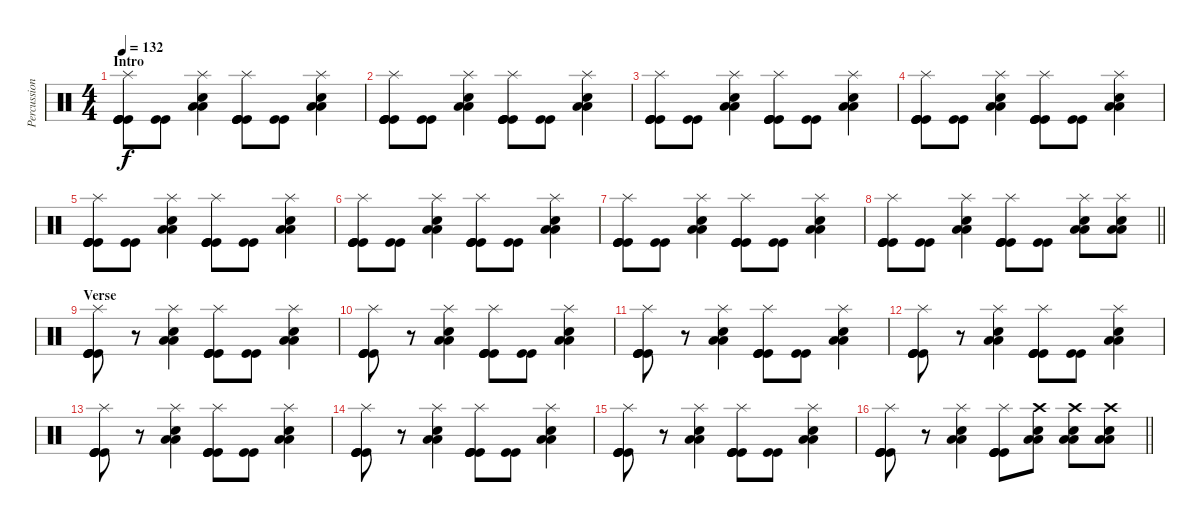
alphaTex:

\track ("Percussion" "Percussion") {instrument percussion}
\staff {score}
\articulation defaults
\ts (4 4)
\section ("" "Intro")
\tempo 132
\clef neutral
\ks c
("Splash (hit)" "Kick (hit)" "Kick (hit)" "Kick (hit)" "Kick (hit)").8{dy f} ("Kick (hit)" "Kick (hit)").8 ("Splash (hit)" "Low Tom (hit)" "Low Tom (hit)" "Electric Snare (hit)").4 ("Splash (hit)" "Kick (hit)" "Kick (hit)" "Kick (hit)" "Kick (hit)").8 ("Kick (hit)" "Kick (hit)").8 ("Splash (hit)" "Low Tom (hit)" "Low Tom (hit)" "Electric Snare (hit)").4 |
("Splash (hit)" "Kick (hit)" "Kick (hit)" "Kick (hit)" "Kick (hit)").8 ("Kick (hit)" "Kick (hit)").8 ("Splash (hit)" "Low Tom (hit)" "Low Tom (hit)" "Electric Snare (hit)").4 ("Splash (hit)" "Kick (hit)" "Kick (hit)" "Kick (hit)" "Kick (hit)").8 ("Kick (hit)" "Kick (hit)").8 ("Splash (hit)" "Low Tom (hit)" "Low Tom (hit)" "Electric Snare (hit)").4 |
("Splash (hit)" "Kick (hit)" "Kick (hit)" "Kick (hit)" "Kick (hit)").8 ("Kick (hit)" "Kick (hit)").8 ("Splash (hit)" "Low Tom (hit)" "Low Tom (hit)" "Electric Snare (hit)").4 ("Splash (hit)" "Kick (hit)" "Kick (hit)" "Kick (hit)" "Kick (hit)").8 ("Kick (hit)" "Kick (hit)").8 ("Splash (hit)" "Low Tom (hit)" "Low Tom (hit)" "Electric Snare (hit)").4 |
("Splash (hit)" "Kick (hit)" "Kick (hit)" "Kick (hit)" "Kick (hit)").8 ("Kick (hit)" "Kick (hit)").8 ("Splash (hit)" "Low Tom (hit)" "Low Tom (hit)" "Electric Snare (hit)").4 ("Splash (hit)" "Kick (hit)" "Kick (hit)" "Kick (hit)" "Kick (hit)").8 ("Kick (hit)" "Kick (hit)").8 ("Splash (hit)" "Low Tom (hit)" "Low Tom (hit)" "Electric Snare (hit)").4 |
("Splash (hit)" "Kick (hit)" "Kick (hit)" "Kick (hit)" "Kick (hit)").8 ("Kick (hit)" "Kick (hit)").8 ("Splash (hit)" "Low Tom (hit)" "Low Tom (hit)" "Electric Snare (hit)").4 ("Splash (hit)" "Kick (hit)" "Kick (hit)" "Kick (hit)" "Kick (hit)").8 ("Kick (hit)" "Kick (hit)").8 ("Splash (hit)" "Low Tom (hit)" "Low Tom (hit)" "Electric Snare (hit)").4 |
("Splash (hit)" "Kick (hit)" "Kick (hit)" "Kick (hit)" "Kick (hit)").8 ("Kick (hit)" "Kick (hit)").8 ("Splash (hit)" "Low Tom (hit)" "Low Tom (hit)" "Electric Snare (hit)").4 ("Splash (hit)" "Kick (hit)" "Kick (hit)" "Kick (hit)" "Kick (hit)").8 ("Kick (hit)" "Kick (hit)").8 ("Splash (hit)" "Low Tom (hit)" "Low Tom (hit)" "Electric Snare (hit)").4 |
("Splash (hit)" "Kick (hit)" "Kick (hit)" "Kick (hit)" "Kick (hit)").8 ("Kick (hit)" "Kick (hit)").8 ("Splash (hit)" "Low Tom (hit)" "Low Tom (hit)" "Electric Snare (hit)").4 ("Splash (hit)" "Kick (hit)" "Kick (hit)" "Kick (hit)" "Kick (hit)").8 ("Kick (hit)" "Kick (hit)").8 ("Splash (hit)" "Low Tom (hit)" "Low Tom (hit)" "Electric Snare (hit)").4 |
\barLineRight lightlight
("Splash (hit)" "Kick (hit)" "Kick (hit)" "Kick (hit)" "Kick (hit)").8 ("Kick (hit)" "Kick (hit)").8 ("Splash (hit)" "Low Tom (hit)" "Low Tom (hit)" "Electric Snare (hit)").4 ("Splash (hit)" "Kick (hit)" "Kick (hit)" "Kick (hit)" "Kick (hit)").8 ("Kick (hit)" "Kick (hit)").8 ("Splash (hit)" "Low Tom (hit)" "Low Tom (hit)" "Electric Snare (hit)").8 ("Splash (hit)" "Low Tom (hit)" "Low Tom (hit)" "Electric Snare (hit)").8 |
\section ("" "Verse")
("Splash (hit)" "Kick (hit)" "Kick (hit)" "Kick (hit)" "Kick (hit)").8 r.8 ("Splash (hit)" "Low Tom (hit)" "Low Tom (hit)" "Electric Snare (hit)").4 ("Splash (hit)" "Kick (hit)" "Kick (hit)" "Kick (hit)" "Kick (hit)").8 ("Kick (hit)" "Kick (hit)").8 ("Splash (hit)" "Low Tom (hit)" "Low Tom (hit)" "Electric Snare (hit)").4 |
("Splash (hit)" "Kick (hit)" "Kick (hit)" "Kick (hit)" "Kick (hit)").8 r.8 ("Splash (hit)" "Low Tom (hit)" "Low Tom (hit)" "Electric Snare (hit)").4 ("Splash (hit)" "Kick (hit)" "Kick (hit)" "Kick (hit)" "Kick (hit)").8 ("Kick (hit)" "Kick (hit)").8 ("Splash (hit)" "Low Tom (hit)" "Low Tom (hit)" "Electric Snare (hit)").4 |
("Splash (hit)" "Kick (hit)" "Kick (hit)" "Kick (hit)" "Kick (hit)").8 r.8 ("Splash (hit)" "Low Tom (hit)" "Low Tom (hit)" "Electric Snare (hit)").4 ("Splash (hit)" "Kick (hit)" "Kick (hit)" "Kick (hit)" "Kick (hit)").8 ("Kick (hit)" "Kick (hit)").8 ("Splash (hit)" "Low Tom (hit)" "Low Tom (hit)" "Electric Snare (hit)").4 |
("Splash (hit)" "Kick (hit)" "Kick (hit)" "Kick (hit)" "Kick (hit)").8 r.8 ("Splash (hit)" "Low Tom (hit)" "Low Tom (hit)" "Electric Snare (hit)").4 ("Splash (hit)" "Kick (hit)" "Kick (hit)" "Kick (hit)" "Kick (hit)").8 ("Kick (hit)" "Kick (hit)").8 ("Splash (hit)" "Low Tom (hit)" "Low Tom (hit)" "Electric Snare (hit)").4 |
("Splash (hit)" "Kick (hit)" "Kick (hit)" "Kick (hit)" "Kick (hit)").8 r.8 ("Splash (hit)" "Low Tom (hit)" "Low Tom (hit)" "Electric Snare (hit)").4 ("Splash (hit)" "Kick (hit)" "Kick (hit)" "Kick (hit)" "Kick (hit)").8 ("Kick (hit)" "Kick (hit)").8 ("Splash (hit)" "Low Tom (hit)" "Low Tom (hit)" "Electric Snare (hit)").4 |
("Splash (hit)" "Kick (hit)" "Kick (hit)" "Kick (hit)" "Kick (hit)").8 r.8 ("Splash (hit)" "Low Tom (hit)" "Low Tom (hit)" "Electric Snare (hit)").4 ("Splash (hit)" "Kick (hit)" "Kick (hit)" "Kick (hit)" "Kick (hit)").8 ("Kick (hit)" "Kick (hit)").8 ("Splash (hit)" "Low Tom (hit)" "Low Tom (hit)" "Electric Snare (hit)").4 |
("Splash (hit)" "Kick (hit)" "Kick (hit)" "Kick (hit)" "Kick (hit)").8 r.8 ("Splash (hit)" "Low Tom (hit)" "Low Tom (hit)" "Electric Snare (hit)").4 ("Splash (hit)" "Kick (hit)" "Kick (hit)" "Kick (hit)" "Kick (hit)").8 ("Kick (hit)" "Kick (hit)").8 ("Splash (hit)" "Low Tom (hit)" "Low Tom (hit)" "Electric Snare (hit)").4 |
\barLineRight lightlight
("Splash (hit)" "Kick (hit)" "Kick (hit)" "Kick (hit)" "Kick (hit)").8 r.8 ("Splash (hit)" "Low Tom (hit)" "Low Tom (hit)" "Electric Snare (hit)").4 ("Splash (hit)" "Kick (hit)" "Kick (hit)" "Kick (hit)" "Kick (hit)").8 ("Crash high (hit)" "Low Tom (hit)" "Low Tom (hit)" "Electric Snare (hit)").8 ("Crash high (hit)" "Low Tom (hit)" "Low Tom (hit)" "Electric Snare (hit)").8 ("Crash high (hit)" "Low Tom (hit)" "Low Tom (hit)" "Electric Snare (hit)").8
